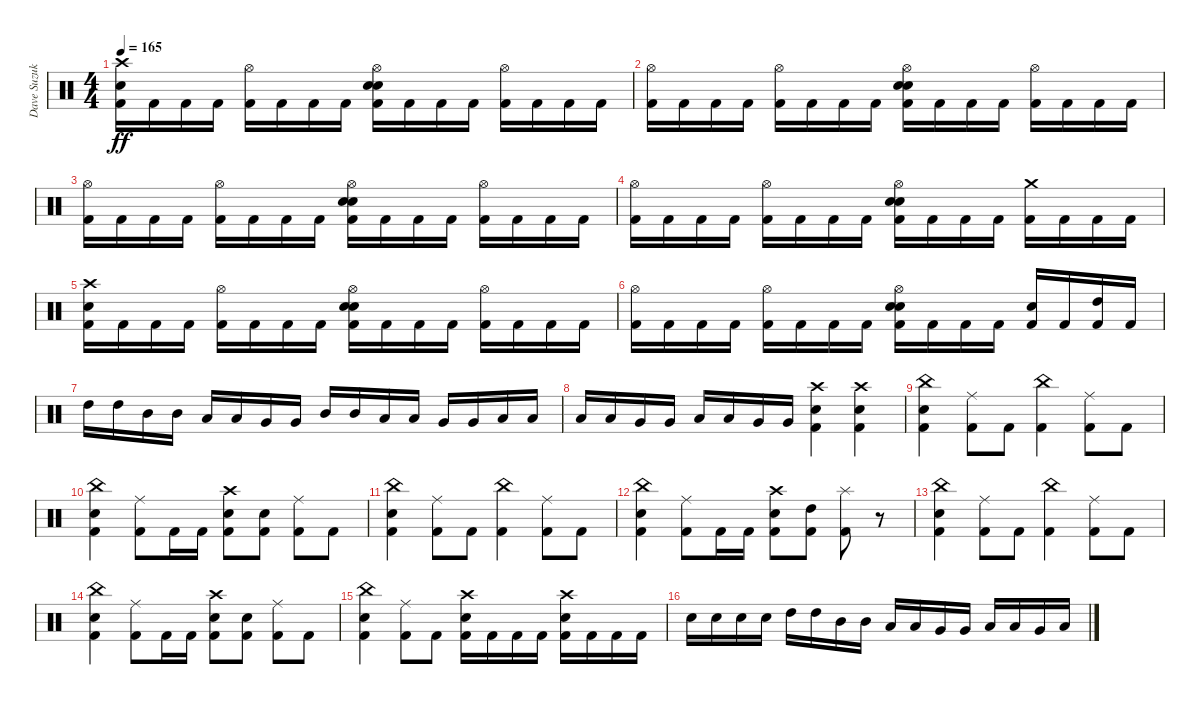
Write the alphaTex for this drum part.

\track ("Dave Suzuki - Drums" "Dave Suzuk") {instrument percussion}
\staff {score}
\articulation defaults
\ts (4 4)
\tempo 165
\clef neutral
\ks c
("Crash high (hit)" "Electric Snare (hit)" "Kick (hit) 2").16{dy ff} "Kick (hit) 2".16 "Kick (hit) 2".16 "Kick (hit) 2".16 ("Hi-Hat (open)" "Kick (hit) 2").16 "Kick (hit) 2".16 "Kick (hit) 2".16 "Kick (hit) 2".16 ("Hi-Hat (open)" "Electric Snare (hit)" "Electric Snare (hit)" "Kick (hit) 2").16 "Kick (hit) 2".16 "Kick (hit) 2".16 "Kick (hit) 2".16 ("Hi-Hat (open)" "Kick (hit) 2").16 "Kick (hit) 2".16 "Kick (hit) 2".16 "Kick (hit) 2".16 |
("Hi-Hat (open)" "Kick (hit) 2").16 "Kick (hit) 2".16 "Kick (hit) 2".16 "Kick (hit) 2".16 ("Hi-Hat (open)" "Kick (hit) 2").16 "Kick (hit) 2".16 "Kick (hit) 2".16 "Kick (hit) 2".16 ("Hi-Hat (open)" "Electric Snare (hit)" "Electric Snare (hit)" "Kick (hit) 2").16 "Kick (hit) 2".16 "Kick (hit) 2".16 "Kick (hit) 2".16 ("Hi-Hat (open)" "Kick (hit) 2").16 "Kick (hit) 2".16 "Kick (hit) 2".16 "Kick (hit) 2".16 |
("Hi-Hat (open)" "Kick (hit) 2").16 "Kick (hit) 2".16 "Kick (hit) 2".16 "Kick (hit) 2".16 ("Hi-Hat (open)" "Kick (hit) 2").16 "Kick (hit) 2".16 "Kick (hit) 2".16 "Kick (hit) 2".16 ("Hi-Hat (open)" "Electric Snare (hit)" "Electric Snare (hit)" "Kick (hit) 2").16 "Kick (hit) 2".16 "Kick (hit) 2".16 "Kick (hit) 2".16 ("Hi-Hat (open)" "Kick (hit) 2").16 "Kick (hit) 2".16 "Kick (hit) 2".16 "Kick (hit) 2".16 |
("Hi-Hat (open)" "Kick (hit) 2").16 "Kick (hit) 2".16 "Kick (hit) 2".16 "Kick (hit) 2".16 ("Hi-Hat (open)" "Kick (hit) 2").16 "Kick (hit) 2".16 "Kick (hit) 2".16 "Kick (hit) 2".16 ("Hi-Hat (open)" "Electric Snare (hit)" "Electric Snare (hit)" "Kick (hit) 2").16 "Kick (hit) 2".16 "Kick (hit) 2".16 "Kick (hit) 2".16 ("Crash medium (hit)" "Kick (hit) 2").16 "Kick (hit) 2".16 "Kick (hit) 2".16 "Kick (hit) 2".16 |
("Crash high (hit)" "Electric Snare (hit)" "Kick (hit) 2").16 "Kick (hit) 2".16 "Kick (hit) 2".16 "Kick (hit) 2".16 ("Hi-Hat (open)" "Kick (hit) 2").16 "Kick (hit) 2".16 "Kick (hit) 2".16 "Kick (hit) 2".16 ("Hi-Hat (open)" "Electric Snare (hit)" "Electric Snare (hit)" "Kick (hit) 2").16 "Kick (hit) 2".16 "Kick (hit) 2".16 "Kick (hit) 2".16 ("Hi-Hat (open)" "Kick (hit) 2").16 "Kick (hit) 2".16 "Kick (hit) 2".16 "Kick (hit) 2".16 |
("Hi-Hat (open)" "Kick (hit) 2").16 "Kick (hit) 2".16 "Kick (hit) 2".16 "Kick (hit) 2".16 ("Hi-Hat (open)" "Kick (hit) 2").16 "Kick (hit) 2".16 "Kick (hit) 2".16 "Kick (hit) 2".16 ("Hi-Hat (open)" "Electric Snare (hit)" "Electric Snare (hit)" "Kick (hit) 2").16 "Kick (hit) 2".16 "Kick (hit) 2".16 "Kick (hit) 2".16 ("Electric Snare (hit)" "Kick (hit) 2").16 "Kick (hit) 2".16 ("High Tom (hit)" "Kick (hit) 2").16 "Kick (hit) 2".16 |
"High Tom (hit)".16 "High Tom (hit)".16 "Mid Tom (hit)".16 "Mid Tom (hit)".16 "Low Tom (hit)".16 "Low Tom (hit)".16 "Very Low Tom (hit)".16 "Very Low Tom (hit)".16 "Mid Tom (hit)".16 "Mid Tom (hit)".16 "Low Tom (hit)".16 "Low Tom (hit)".16 "Very Low Tom (hit)".16 "Very Low Tom (hit)".16 "Low Floor Tom (hit)".16 "Low Floor Tom (hit)".16 |
"Low Tom (hit)".16 "Low Tom (hit)".16 "Very Low Tom (hit)".16 "Very Low Tom (hit)".16 "Low Floor Tom (hit)".16 "Low Floor Tom (hit)".16 "Very Low Tom (hit)".16 "Very Low Tom (hit)".16 ("Crash high (hit)" "Electric Snare (hit)" "Kick (hit) 2").4 ("Crash high (hit)" "Electric Snare (hit)" "Kick (hit) 2").4 |
("China (hit)" "Electric Snare (hit)" "Kick (hit) 2").4 ("Ride (middle)" "Kick (hit) 2").8 "Kick (hit) 2".8 ("China (hit)" "Kick (hit) 2").4 ("Ride (middle)" "Kick (hit) 2").8 "Kick (hit) 2".8 |
("China (hit)" "Electric Snare (hit)" "Kick (hit) 2").4 ("Ride (middle)" "Kick (hit) 2").8 "Kick (hit) 2".16 "Kick (hit) 2".16 ("Crash high (hit)" "Electric Snare (hit)" "Kick (hit) 2").8 ("Electric Snare (hit)" "Kick (hit) 2").8 ("Ride (middle)" "Kick (hit) 2").8 "Kick (hit) 2".8 |
("China (hit)" "Electric Snare (hit)" "Kick (hit) 2").4 ("Ride (middle)" "Kick (hit) 2").8 "Kick (hit) 2".8 ("China (hit)" "Kick (hit) 2").4 ("Ride (middle)" "Kick (hit) 2").8 "Kick (hit) 2".8 |
("China (hit)" "Electric Snare (hit)" "Kick (hit) 2").4 ("Ride (middle)" "Kick (hit) 2").8 "Kick (hit) 2".16 "Kick (hit) 2".16 ("Crash high (hit)" "Electric Snare (hit)" "Kick (hit) 2").8 ("High Tom (hit)" "Kick (hit) 2").8 ("Splash (hit)" "Kick (hit) 2").8 r.8 |
("China (hit)" "Electric Snare (hit)" "Kick (hit) 2").4 ("Ride (middle)" "Kick (hit) 2").8 "Kick (hit) 2".8 ("China (hit)" "Kick (hit) 2").4 ("Ride (middle)" "Kick (hit) 2").8 "Kick (hit) 2".8 |
("China (hit)" "Electric Snare (hit)" "Kick (hit) 2").4 ("Ride (middle)" "Kick (hit) 2").8 "Kick (hit) 2".16 "Kick (hit) 2".16 ("Crash high (hit)" "Electric Snare (hit)" "Kick (hit) 2").8 ("Electric Snare (hit)" "Kick (hit) 2").8 ("Ride (middle)" "Kick (hit) 2").8 "Kick (hit) 2".8 |
("China (hit)" "Electric Snare (hit)" "Kick (hit) 2").4 ("Ride (middle)" "Kick (hit) 2").8 "Kick (hit) 2".8 ("Crash high (hit)" "Electric Snare (hit)" "Kick (hit) 2").16 "Kick (hit) 2".16 "Kick (hit) 2".16 "Kick (hit) 2".16 ("Crash high (hit)" "Electric Snare (hit)" "Kick (hit) 2").16 "Kick (hit) 2".16 "Kick (hit) 2".16 "Kick (hit) 2".16 |
"Electric Snare (hit)".16 "Electric Snare (hit)".16 "Electric Snare (hit)".16 "Electric Snare (hit)".16 "High Tom (hit)".16 "High Tom (hit)".16 "Mid Tom (hit)".16 "Mid Tom (hit)".16 "Low Tom (hit)".16 "Low Tom (hit)".16 "Very Low Tom (hit)".16 "Very Low Tom (hit)".16 "Low Floor Tom (hit)".16 "Low Floor Tom (hit)".16 "Very Low Tom (hit)".16 "Low Floor Tom (hit)".16
